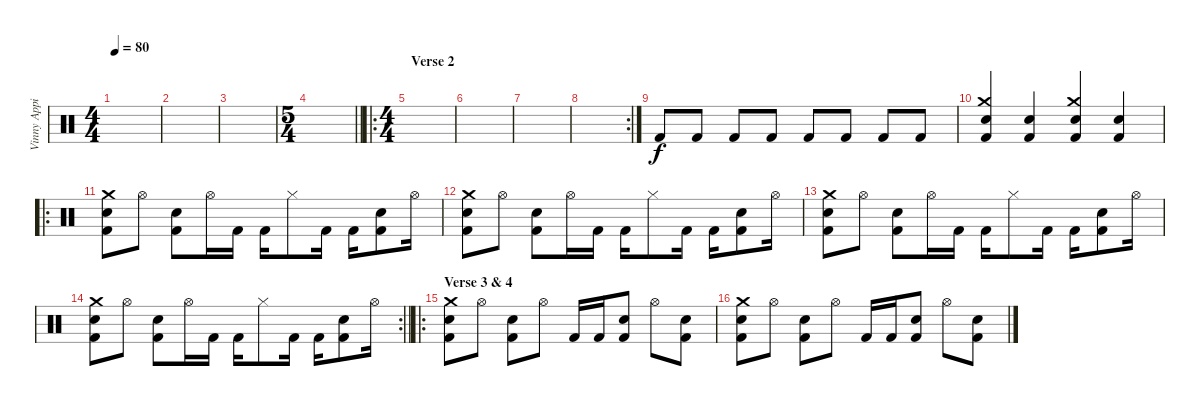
\track ("Vinny Appice" "Vinny Appi") {instrument percussion}
\staff {score}
\articulation defaults
\ts (4 4)
\tempo 80
\clef neutral
\ks c
|
|
|
\ts (5 4)
\barLineRight lightlight
|
\ro
\ts (4 4)
\section ("" "Verse 2")
|
|
|
\rc 2
|
"Kick (hit) 2".8 "Kick (hit) 2".8 "Kick (hit) 2".8 "Kick (hit) 2".8 "Kick (hit) 2".8 "Kick (hit) 2".8 "Kick (hit) 2".8 "Kick (hit) 2".8 |
("Crash medium (hit)" "Snare (hit) 2" "Kick (hit) 2").4 ("Snare (hit) 2" "Kick (hit) 2").4 ("Crash medium (hit)" "Snare (hit) 2" "Kick (hit) 2").4 ("Snare (hit) 2" "Kick (hit) 2").4 |
\ro
("Crash medium (hit)" "Snare (hit) 2" "Kick (hit) 2").8 "Hi-Hat (open)".8 ("Snare (hit) 2" "Kick (hit) 2").8 "Hi-Hat (open)".16 "Kick (hit) 2".16 "Kick (hit) 2".16 "Hi-Hat (closed)".8 "Kick (hit) 2".16 "Kick (hit) 2".16 ("Snare (hit) 2" "Kick (hit) 2").8 "Hi-Hat (open)".16 |
("Crash medium (hit)" "Snare (hit) 2" "Kick (hit) 2").8 "Hi-Hat (open)".8 ("Snare (hit) 2" "Kick (hit) 2").8 "Hi-Hat (open)".16 "Kick (hit) 2".16 "Kick (hit) 2".16 "Hi-Hat (closed)".8 "Kick (hit) 2".16 "Kick (hit) 2".16 ("Snare (hit) 2" "Kick (hit) 2").8 "Hi-Hat (open)".16 |
("Crash medium (hit)" "Snare (hit) 2" "Kick (hit) 2").8 "Hi-Hat (open)".8 ("Snare (hit) 2" "Kick (hit) 2").8 "Hi-Hat (open)".16 "Kick (hit) 2".16 "Kick (hit) 2".16 "Hi-Hat (closed)".8 "Kick (hit) 2".16 "Kick (hit) 2".16 ("Snare (hit) 2" "Kick (hit) 2").8 "Hi-Hat (open)".16 |
\rc 2
\barLineRight lightlight
("Crash medium (hit)" "Snare (hit) 2" "Kick (hit) 2").8 "Hi-Hat (open)".8 ("Snare (hit) 2" "Kick (hit) 2").8 "Hi-Hat (open)".16 "Kick (hit) 2".16 "Kick (hit) 2".16 "Hi-Hat (closed)".8 "Kick (hit) 2".16 "Kick (hit) 2".16 ("Snare (hit) 2" "Kick (hit) 2").8 "Hi-Hat (open)".16 |
\ro
\section ("" "Verse 3 & 4")
("Crash medium (hit)" "Snare (hit) 2" "Kick (hit) 2").8 "Hi-Hat (open)".8 ("Snare (hit) 2" "Kick (hit) 2").8 "Hi-Hat (open)".8 "Kick (hit) 2".16 "Kick (hit) 2".16 ("Snare (hit) 2" "Kick (hit) 2").8 "Hi-Hat (open)".8 ("Snare (hit) 2" "Kick (hit) 2").8 |
("Crash medium (hit)" "Snare (hit) 2" "Kick (hit) 2").8 "Hi-Hat (open)".8 ("Snare (hit) 2" "Kick (hit) 2").8 "Hi-Hat (open)".8 "Kick (hit) 2".16 "Kick (hit) 2".16 ("Snare (hit) 2" "Kick (hit) 2").8 "Hi-Hat (open)".8 ("Snare (hit) 2" "Kick (hit) 2").8
